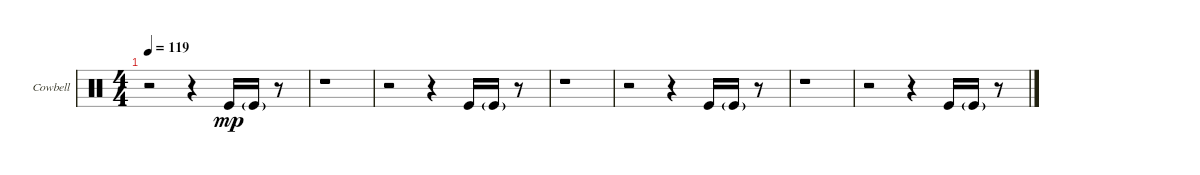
\defaultSystemsLayout 4
\bracketExtendMode groupsimilarinstruments
\useSystemSignSeparator
\multiBarRest
\multiTrackTrackNamePolicy allsystems
\firstSystemTrackNameMode fullname
\firstSystemTrackNameOrientation horizontal
\otherSystemsTrackNameOrientation horizontal
\defaultBarNumberDisplay FirstOfSystem
\track ("Cowbell" "Cowbell") {multiBarRest instrument percussion}
\staff {score}
\articulation defaults
\ts (4 4)
\tempo 119
\clef neutral
\ks aminor
r.2{dy mp} r.4 "Kick (hit)".16 "Kick (hit)"{g}.16 r.8 |
r.1 |
r.2 r.4 "Kick (hit)".16 "Kick (hit)"{g}.16 r.8 |
r.1 |
r.2 r.4 "Kick (hit)".16 "Kick (hit)"{g}.16 r.8 |
r.1 |
r.2 r.4 "Kick (hit)".16 "Kick (hit)"{g}.16 r.8
